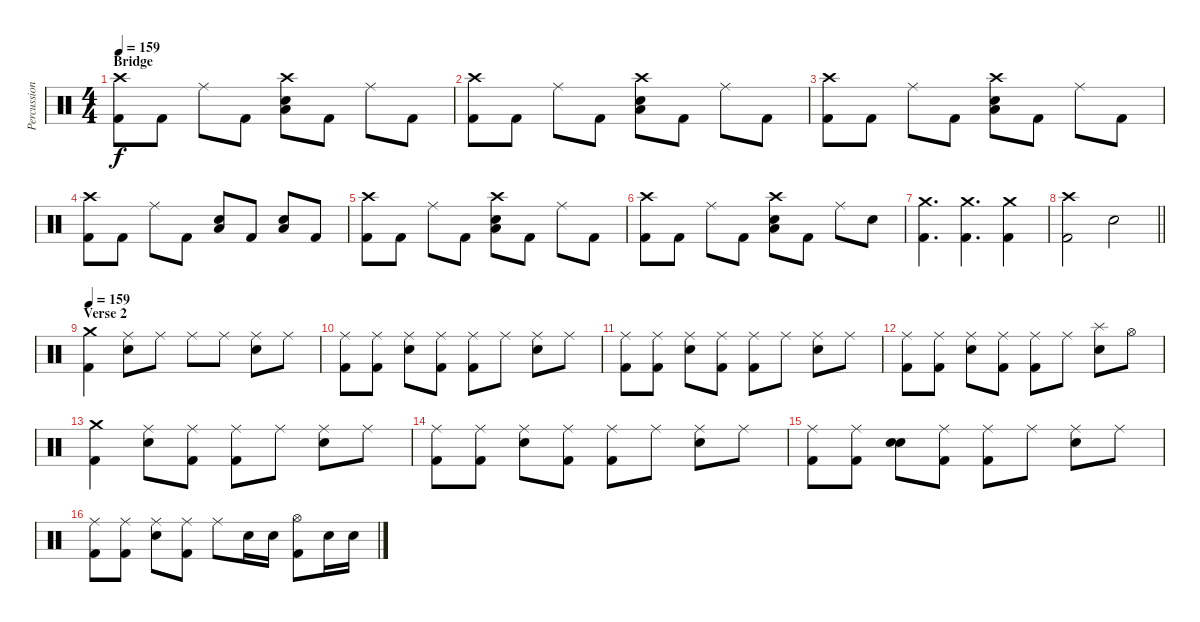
\track ("Percussion" "Percussion") {instrument percussion}
\staff {score}
\articulation defaults
\ts (4 4)
\section ("" "Bridge")
\tempo 159
\clef neutral
\ks c
("Crash high (hit)" "Kick (hit) 2").8{dy f} "Kick (hit) 2".8 "Ride (middle)".8 "Kick (hit) 2".8 ("Crash high (hit)" "Low Tom (hit)" "Electric Snare (hit)").8 "Kick (hit) 2".8 "Ride (middle)".8 "Kick (hit) 2".8 |
("Crash high (hit)" "Kick (hit) 2").8 "Kick (hit) 2".8 "Ride (middle)".8 "Kick (hit) 2".8 ("Crash high (hit)" "Low Tom (hit)" "Electric Snare (hit)").8 "Kick (hit) 2".8 "Ride (middle)".8 "Kick (hit) 2".8 |
("Crash high (hit)" "Kick (hit) 2").8 "Kick (hit) 2".8 "Ride (middle)".8 "Kick (hit) 2".8 ("Crash high (hit)" "Low Tom (hit)" "Electric Snare (hit)").8 "Kick (hit) 2".8 "Ride (middle)".8 "Kick (hit) 2".8 |
("Crash high (hit)" "Kick (hit) 2").8 "Kick (hit) 2".8 "Ride (middle)".8 "Kick (hit) 2".8 ("Low Tom (hit)" "Electric Snare (hit)").8 "Kick (hit) 2".8 ("Low Tom (hit)" "Electric Snare (hit)").8 "Kick (hit) 2".8 |
("Crash high (hit)" "Kick (hit) 2").8 "Kick (hit) 2".8 "Ride (middle)".8 "Kick (hit) 2".8 ("Crash high (hit)" "Low Tom (hit)" "Electric Snare (hit)").8 "Kick (hit) 2".8 "Ride (middle)".8 "Kick (hit) 2".8 |
("Crash high (hit)" "Kick (hit) 2").8 "Kick (hit) 2".8 "Ride (middle)".8 "Kick (hit) 2".8 ("Crash high (hit)" "Low Tom (hit)" "Electric Snare (hit)").8 "Kick (hit) 2".8 "Ride (middle)".8 "Electric Snare (hit)".8 |
("Crash medium (hit)" "Kick (hit) 2").4{d} ("Crash medium (hit)" "Kick (hit) 2").4{d} ("Crash medium (hit)" "Kick (hit) 2").4 |
\barLineRight lightlight
("Crash high (hit)" "Kick (hit) 2").2 "Electric Snare (hit)".2 |
\section ("" "Verse 2")
\tempo 159
("Crash medium (hit)" "Kick (hit) 2").4 ("Ride (middle)" "Electric Snare (hit)").8 "Ride (middle)".8 "Ride (middle)".8 "Ride (middle)".8 ("Ride (middle)" "Electric Snare (hit)").8 "Ride (middle)".8 |
("Ride (middle)" "Kick (hit) 2").8 ("Ride (middle)" "Kick (hit) 2").8 ("Ride (middle)" "Electric Snare (hit)").8 ("Ride (middle)" "Kick (hit) 2").8 ("Ride (middle)" "Kick (hit) 2").8 "Ride (middle)".8 ("Ride (middle)" "Electric Snare (hit)").8 "Ride (middle)".8 |
("Ride (middle)" "Kick (hit) 2").8 ("Ride (middle)" "Kick (hit) 2").8 ("Ride (middle)" "Electric Snare (hit)").8 ("Ride (middle)" "Kick (hit) 2").8 ("Ride (middle)" "Kick (hit) 2").8 "Ride (middle)".8 ("Ride (middle)" "Electric Snare (hit)").8 "Ride (middle)".8 |
("Ride (middle)" "Kick (hit) 2").8 ("Ride (middle)" "Kick (hit) 2").8 ("Ride (middle)" "Electric Snare (hit)").8 ("Ride (middle)" "Kick (hit) 2").8 ("Ride (middle)" "Kick (hit) 2").8 "Ride (middle)".8 ("Splash (hit)" "Electric Snare (hit)").8 "Hi-Hat (open)".8 |
("Crash medium (hit)" "Kick (hit) 2").4 ("Ride (middle)" "Electric Snare (hit)").8 ("Ride (middle)" "Kick (hit) 2").8 ("Ride (middle)" "Kick (hit) 2").8 "Ride (middle)".8 ("Ride (middle)" "Electric Snare (hit)").8 "Ride (middle)".8 |
("Ride (middle)" "Kick (hit) 2").8 ("Ride (middle)" "Kick (hit) 2").8 ("Ride (middle)" "Electric Snare (hit)").8 ("Ride (middle)" "Kick (hit) 2").8 ("Ride (middle)" "Kick (hit) 2").8 "Ride (middle)".8 ("Ride (middle)" "Electric Snare (hit)").8 "Ride (middle)".8 |
("Ride (middle)" "Kick (hit) 2").8 ("Ride (middle)" "Kick (hit) 2").8 ("Snare (hit)" "Electric Snare (hit)").8 ("Ride (middle)" "Kick (hit) 2").8 ("Ride (middle)" "Kick (hit) 2").8 "Ride (middle)".8 ("Ride (middle)" "Electric Snare (hit)").8 "Ride (middle)".8 |
("Ride (middle)" "Kick (hit) 2").8 ("Ride (middle)" "Kick (hit) 2").8 ("Ride (middle)" "Electric Snare (hit)").8 ("Ride (middle)" "Kick (hit) 2").8 "Ride (middle)".8 "Electric Snare (hit)".16 "Electric Snare (hit)".16 ("Hi-Hat (open)" "Kick (hit) 2").8 "Electric Snare (hit)".16 "Electric Snare (hit)".16
